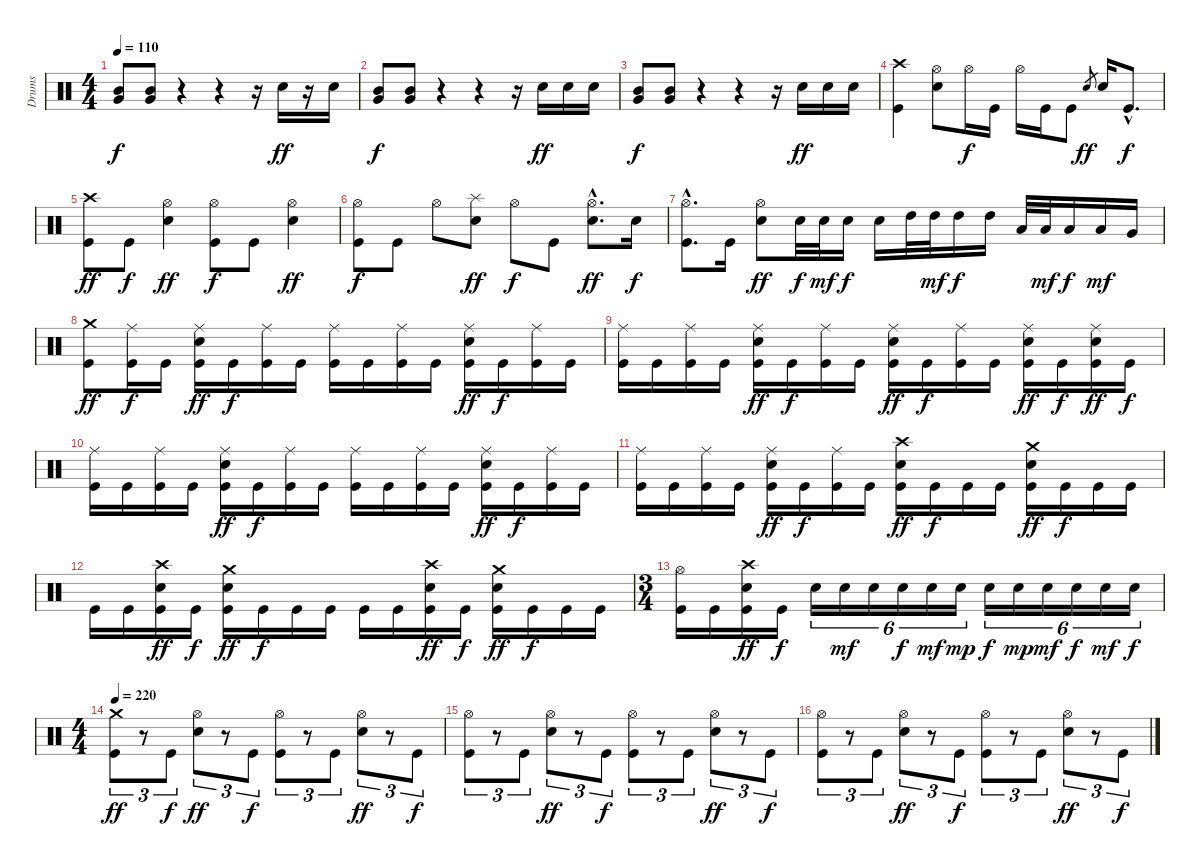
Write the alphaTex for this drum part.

\track ("Drums" "Drums") {instrument percussion}
\staff {score}
\articulation defaults
\ts (4 4)
\tempo 110
\clef neutral
\ks c
("Mid Tom (hit)" "Very Low Tom (hit)").8{dy f} ("Mid Tom (hit)" "Very Low Tom (hit)").8 r.4 r.4 r.16 "Electric Snare (hit)".16{dy ff} r.16 "Electric Snare (hit)".16 |
("Mid Tom (hit)" "Very Low Tom (hit)").8{dy f} ("Mid Tom (hit)" "Very Low Tom (hit)").8 r.4 r.4 r.16 "Electric Snare (hit)".16{dy ff} "Electric Snare (hit)".16 "Electric Snare (hit)".16 |
("Mid Tom (hit)" "Very Low Tom (hit)").8{dy f} ("Mid Tom (hit)" "Very Low Tom (hit)").8 r.4 r.4 r.16 "Electric Snare (hit)".16{dy ff} "Electric Snare (hit)".16 "Electric Snare (hit)".16 |
("Kick (hit)" "Crash high (hit)").4 ("Electric Snare (hit)" "Hi-Hat (open)").8 "Hi-Hat (open)".16{dy f} "Kick (hit)".16 "Hi-Hat (open)".16 "Kick (hit)".16 "Kick (hit)".8 "Electric Snare (hit)".8{gr dy ff} "Electric Snare (hit)".16 "Kick (hit)"{hac}.8{d dy f} |
("Kick (hit)" "Crash high (hit)").8{dy ff} "Kick (hit)".8{dy f} ("Electric Snare (hit)" "Hi-Hat (open)").4{dy ff} ("Kick (hit)" "Hi-Hat (open)").8{dy f} "Kick (hit)".8 ("Electric Snare (hit)" "Hi-Hat (open)").4{dy ff} |
("Kick (hit)" "Hi-Hat (open)").8{dy f} "Kick (hit)".8 "Hi-Hat (open)".8 ("Electric Snare (hit)" "Splash (hit)").8{dy ff} "Hi-Hat (open)".8{dy f} "Kick (hit)".8 ("Electric Snare (hit)"{hac} "Hi-Hat (open)"{hac}).8{d dy ff} "Electric Snare (hit)".16{dy f} |
("Kick (hit)"{hac} "Hi-Hat (open)"{hac}).8{d} "Kick (hit)".16 ("Electric Snare (hit)" "Hi-Hat (open)").8{dy ff} "Electric Snare (hit)".32{dy f} "Electric Snare (hit)".32{dy mf} "Electric Snare (hit)".16{dy f} "Electric Snare (hit)".16 "High Tom (hit)".32 "High Tom (hit)".32{dy mf} "High Tom (hit)".16{dy f} "High Tom (hit)".16 "Low Tom (hit)".32 "Low Tom (hit)".32{dy mf} "Low Tom (hit)".16{dy f} "Low Tom (hit)".16{dy mf} "Very Low Tom (hit)".16 |
("Kick (hit)" "Crash medium (hit)").8{dy ff} ("Kick (hit)" "Ride (middle)").16{dy f} "Kick (hit)".16 ("Kick (hit)" "Electric Snare (hit)" "Ride (middle)").16{dy ff} "Kick (hit)".16{dy f} ("Kick (hit)" "Ride (middle)").16 "Kick (hit)".16 ("Kick (hit)" "Ride (middle)").16 "Kick (hit)".16 ("Kick (hit)" "Ride (middle)").16 "Kick (hit)".16 ("Kick (hit)" "Electric Snare (hit)" "Ride (middle)").16{dy ff} "Kick (hit)".16{dy f} ("Kick (hit)" "Ride (middle)").16 "Kick (hit)".16 |
("Kick (hit)" "Ride (middle)").16 "Kick (hit)".16 ("Kick (hit)" "Ride (middle)").16 "Kick (hit)".16 ("Kick (hit)" "Electric Snare (hit)" "Ride (middle)").16{dy ff} "Kick (hit)".16{dy f} ("Kick (hit)" "Ride (middle)").16 "Kick (hit)".16 ("Kick (hit)" "Electric Snare (hit)" "Ride (middle)").16{dy ff} "Kick (hit)".16{dy f} ("Kick (hit)" "Ride (middle)").16 "Kick (hit)".16 ("Kick (hit)" "Electric Snare (hit)" "Ride (middle)").16{dy ff} "Kick (hit)".16{dy f} ("Kick (hit)" "Electric Snare (hit)" "Ride (middle)").16{dy ff} "Kick (hit)".16{dy f} |
("Kick (hit)" "Ride (middle)").16 "Kick (hit)".16 ("Kick (hit)" "Ride (middle)").16 "Kick (hit)".16 ("Kick (hit)" "Electric Snare (hit)" "Ride (middle)").16{dy ff} "Kick (hit)".16{dy f} ("Kick (hit)" "Ride (middle)").16 "Kick (hit)".16 ("Kick (hit)" "Ride (middle)").16 "Kick (hit)".16 ("Kick (hit)" "Ride (middle)").16 "Kick (hit)".16 ("Kick (hit)" "Electric Snare (hit)" "Ride (middle)").16{dy ff} "Kick (hit)".16{dy f} ("Kick (hit)" "Ride (middle)").16 "Kick (hit)".16 |
("Kick (hit)" "Ride (middle)").16 "Kick (hit)".16 ("Kick (hit)" "Ride (middle)").16 "Kick (hit)".16 ("Kick (hit)" "Electric Snare (hit)" "Ride (middle)").16{dy ff} "Kick (hit)".16{dy f} ("Kick (hit)" "Ride (middle)").16 "Kick (hit)".16 ("Kick (hit)" "Electric Snare (hit)" "Crash high (hit)").16{dy ff} "Kick (hit)".16{dy f} "Kick (hit)".16 "Kick (hit)".16 ("Kick (hit)" "Electric Snare (hit)" "Crash medium (hit)").16{dy ff} "Kick (hit)".16{dy f} "Kick (hit)".16 "Kick (hit)".16 |
"Kick (hit)".16 "Kick (hit)".16 ("Kick (hit)" "Electric Snare (hit)" "Crash high (hit)").16{dy ff} "Kick (hit)".16{dy f} ("Kick (hit)" "Electric Snare (hit)" "Crash medium (hit)").16{dy ff} "Kick (hit)".16{dy f} "Kick (hit)".16 "Kick (hit)".16 "Kick (hit)".16 "Kick (hit)".16 ("Kick (hit)" "Electric Snare (hit)" "Crash high (hit)").16{dy ff} "Kick (hit)".16{dy f} ("Kick (hit)" "Electric Snare (hit)" "Crash medium (hit)").16{dy ff} "Kick (hit)".16{dy f} "Kick (hit)".16 "Kick (hit)".16 |
\ts (3 4)
("Kick (hit)" "Hi-Hat (open)").16 "Kick (hit)".16 ("Kick (hit)" "Electric Snare (hit)" "Crash high (hit)").16{dy ff} "Kick (hit)".16{dy f} "Electric Snare (hit)".16{tu (6 4)} "Electric Snare (hit)".16{tu (6 4) dy mf} "Electric Snare (hit)".16{tu (6 4)} "Electric Snare (hit)".16{tu (6 4) dy f} "Electric Snare (hit)".16{tu (6 4) dy mf} "Electric Snare (hit)".16{tu (6 4) dy mp} "Electric Snare (hit)".16{tu (6 4) dy f} "Electric Snare (hit)".16{tu (6 4) dy mp} "Electric Snare (hit)".16{tu (6 4) dy mf} "Electric Snare (hit)".16{tu (6 4) dy f} "Electric Snare (hit)".16{tu (6 4) dy mf} "Electric Snare (hit)".16{tu (6 4) dy f} |
\ts (4 4)
\tempo 220
("Kick (hit)" "Crash medium (hit)").8{tu (3 2) dy ff} r.8{tu (3 2)} "Kick (hit)".8{tu (3 2) dy f} ("Electric Snare (hit)" "Hi-Hat (open)").8{tu (3 2) dy ff} r.8{tu (3 2)} "Kick (hit)".8{tu (3 2) dy f} ("Kick (hit)" "Hi-Hat (open)").8{tu (3 2)} r.8{tu (3 2)} "Kick (hit)".8{tu (3 2)} ("Electric Snare (hit)" "Hi-Hat (open)").8{tu (3 2) dy ff} r.8{tu (3 2)} "Kick (hit)".8{tu (3 2) dy f} |
("Kick (hit)" "Hi-Hat (open)").8{tu (3 2)} r.8{tu (3 2)} "Kick (hit)".8{tu (3 2)} ("Electric Snare (hit)" "Hi-Hat (open)").8{tu (3 2) dy ff} r.8{tu (3 2)} "Kick (hit)".8{tu (3 2) dy f} ("Kick (hit)" "Hi-Hat (open)").8{tu (3 2)} r.8{tu (3 2)} "Kick (hit)".8{tu (3 2)} ("Electric Snare (hit)" "Hi-Hat (open)").8{tu (3 2) dy ff} r.8{tu (3 2)} "Kick (hit)".8{tu (3 2) dy f} |
("Kick (hit)" "Hi-Hat (open)").8{tu (3 2)} r.8{tu (3 2)} "Kick (hit)".8{tu (3 2)} ("Electric Snare (hit)" "Hi-Hat (open)").8{tu (3 2) dy ff} r.8{tu (3 2)} "Kick (hit)".8{tu (3 2) dy f} ("Kick (hit)" "Hi-Hat (open)").8{tu (3 2)} r.8{tu (3 2)} "Kick (hit)".8{tu (3 2)} ("Electric Snare (hit)" "Hi-Hat (open)").8{tu (3 2) dy ff} r.8{tu (3 2)} "Kick (hit)".8{tu (3 2) dy f}
